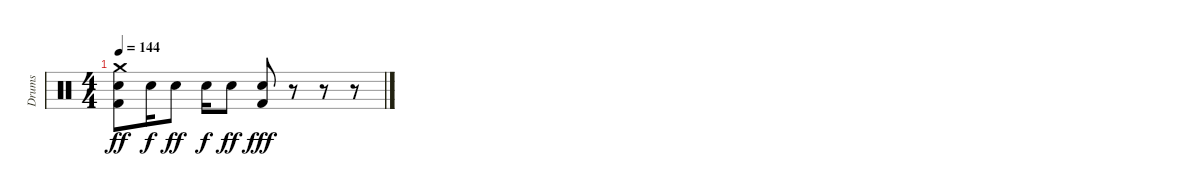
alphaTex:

\track ("Drums" "Drums") {instrument percussion}
\staff {score}
\articulation defaults
\ts (4 4)
\tempo 144
\clef neutral
\ks c
("Kick (hit) 2" "Electric Snare (hit)" "Crash medium (hit)").8{dy ff} "Electric Snare (hit)".16{dy f} "Electric Snare (hit)".8{dy ff} "Electric Snare (hit)".16{dy f} "Electric Snare (hit)".8{dy ff} ("Kick (hit) 2" "Electric Snare (hit)").8{dy fff} r.8 r.8 r.8
